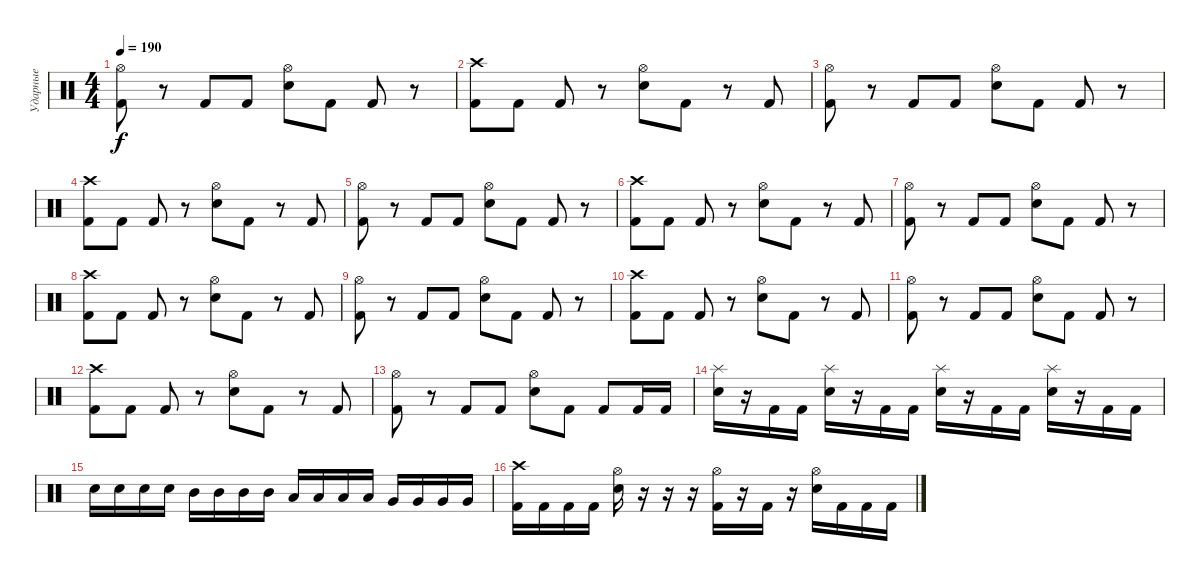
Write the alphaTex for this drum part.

\track ("Ударные" "Ударные") {instrument percussion}
\staff {score}
\articulation defaults
\ts (4 4)
\tempo 190
\clef neutral
\ks c
("Hi-Hat (open)" "Kick (hit) 2").8{dy f} r.8 "Kick (hit) 2".8 "Kick (hit) 2".8 ("Hi-Hat (open)" "Electric Snare (hit)").8 "Kick (hit) 2".8 "Kick (hit) 2".8 r.8 |
("Crash high (hit)" "Kick (hit) 2").8 "Kick (hit) 2".8 "Kick (hit) 2".8 r.8 ("Hi-Hat (open)" "Electric Snare (hit)").8 "Kick (hit) 2".8 r.8 "Kick (hit) 2".8 |
("Hi-Hat (open)" "Kick (hit) 2").8 r.8 "Kick (hit) 2".8 "Kick (hit) 2".8 ("Hi-Hat (open)" "Electric Snare (hit)").8 "Kick (hit) 2".8 "Kick (hit) 2".8 r.8 |
("Crash high (hit)" "Kick (hit) 2").8 "Kick (hit) 2".8 "Kick (hit) 2".8 r.8 ("Hi-Hat (open)" "Electric Snare (hit)").8 "Kick (hit) 2".8 r.8 "Kick (hit) 2".8 |
("Hi-Hat (open)" "Kick (hit) 2").8 r.8 "Kick (hit) 2".8 "Kick (hit) 2".8 ("Hi-Hat (open)" "Electric Snare (hit)").8 "Kick (hit) 2".8 "Kick (hit) 2".8 r.8 |
("Crash high (hit)" "Kick (hit) 2").8 "Kick (hit) 2".8 "Kick (hit) 2".8 r.8 ("Hi-Hat (open)" "Electric Snare (hit)").8 "Kick (hit) 2".8 r.8 "Kick (hit) 2".8 |
("Hi-Hat (open)" "Kick (hit) 2").8 r.8 "Kick (hit) 2".8 "Kick (hit) 2".8 ("Hi-Hat (open)" "Electric Snare (hit)").8 "Kick (hit) 2".8 "Kick (hit) 2".8 r.8 |
("Crash high (hit)" "Kick (hit) 2").8 "Kick (hit) 2".8 "Kick (hit) 2".8 r.8 ("Hi-Hat (open)" "Electric Snare (hit)").8 "Kick (hit) 2".8 r.8 "Kick (hit) 2".8 |
("Hi-Hat (open)" "Kick (hit) 2").8 r.8 "Kick (hit) 2".8 "Kick (hit) 2".8 ("Hi-Hat (open)" "Electric Snare (hit)").8 "Kick (hit) 2".8 "Kick (hit) 2".8 r.8 |
("Crash high (hit)" "Kick (hit) 2").8 "Kick (hit) 2".8 "Kick (hit) 2".8 r.8 ("Hi-Hat (open)" "Electric Snare (hit)").8 "Kick (hit) 2".8 r.8 "Kick (hit) 2".8 |
("Hi-Hat (open)" "Kick (hit) 2").8 r.8 "Kick (hit) 2".8 "Kick (hit) 2".8 ("Hi-Hat (open)" "Electric Snare (hit)").8 "Kick (hit) 2".8 "Kick (hit) 2".8 r.8 |
("Crash high (hit)" "Kick (hit) 2").8 "Kick (hit) 2".8 "Kick (hit) 2".8 r.8 ("Hi-Hat (open)" "Electric Snare (hit)").8 "Kick (hit) 2".8 r.8 "Kick (hit) 2".8 |
("Hi-Hat (open)" "Kick (hit) 2").8 r.8 "Kick (hit) 2".8 "Kick (hit) 2".8 ("Hi-Hat (open)" "Electric Snare (hit)").8 "Kick (hit) 2".8 "Kick (hit) 2".8 "Kick (hit) 2".16 "Kick (hit) 2".16 |
("Splash (hit)" "Electric Snare (hit)").16 r.16 "Kick (hit) 2".16 "Kick (hit) 2".16 ("Splash (hit)" "Electric Snare (hit)").16 r.16 "Kick (hit) 2".16 "Kick (hit) 2".16 ("Splash (hit)" "Electric Snare (hit)").16 r.16 "Kick (hit) 2".16 "Kick (hit) 2".16 ("Splash (hit)" "Electric Snare (hit)").16 r.16 "Kick (hit) 2".16 "Kick (hit) 2".16 |
"Electric Snare (hit)".16 "Electric Snare (hit)".16 "Electric Snare (hit)".16 "Electric Snare (hit)".16 "Mid Tom (hit)".16 "Mid Tom (hit)".16 "Mid Tom (hit)".16 "Mid Tom (hit)".16 "Low Tom (hit)".16 "Low Tom (hit)".16 "Low Tom (hit)".16 "Low Tom (hit)".16 "Very Low Tom (hit)".16 "Very Low Tom (hit)".16 "Very Low Tom (hit)".16 "Very Low Tom (hit)".16 |
("Crash high (hit)" "Kick (hit) 2").16 "Kick (hit) 2".16 "Kick (hit) 2".16 "Kick (hit) 2".16 ("Hi-Hat (open)" "Electric Snare (hit)").16 r.16 r.16 r.16 ("Hi-Hat (open)" "Kick (hit) 2").16 r.16 "Kick (hit) 2".16 r.16 ("Hi-Hat (open)" "Electric Snare (hit)").16 "Kick (hit) 2".16 "Kick (hit) 2".16 "Kick (hit) 2".16
